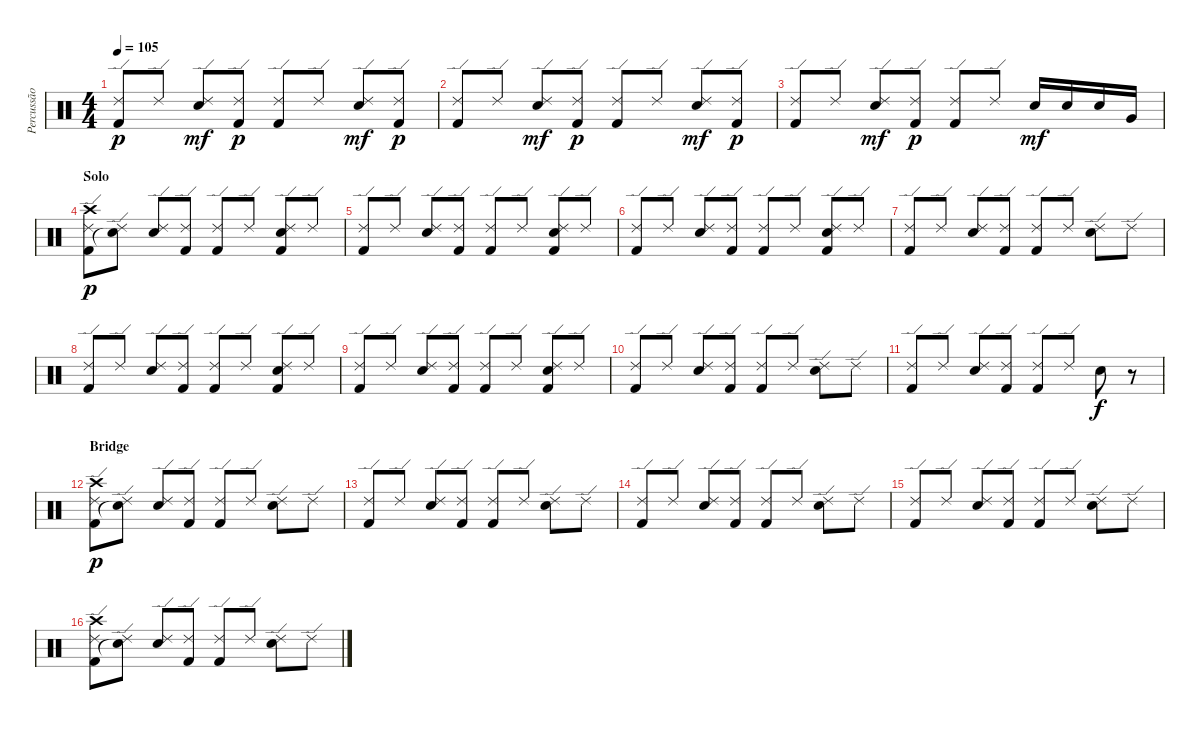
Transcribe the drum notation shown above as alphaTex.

\track ("Percussão" "Percussão") {instrument percussion}
\staff {score}
\articulation defaults
\ts (4 4)
\tempo 105
\clef neutral
\ks c
("Kick (hit) 2" "Ride (edge) 2").8{dy p} "Ride (edge) 2".8 ("Ride (edge) 2" "Electric Snare (hit)").8{dy mf} ("Kick (hit) 2" "Ride (edge) 2").8{dy p} ("Kick (hit) 2" "Ride (edge) 2").8 "Ride (edge) 2".8 ("Ride (edge) 2" "Electric Snare (hit)").8{dy mf} ("Kick (hit) 2" "Ride (edge) 2").8{dy p} |
("Kick (hit) 2" "Ride (edge) 2").8 "Ride (edge) 2".8 ("Ride (edge) 2" "Electric Snare (hit)").8{dy mf} ("Kick (hit) 2" "Ride (edge) 2").8{dy p} ("Kick (hit) 2" "Ride (edge) 2").8 "Ride (edge) 2".8 ("Ride (edge) 2" "Electric Snare (hit)").8{dy mf} ("Kick (hit) 2" "Ride (edge) 2").8{dy p} |
("Kick (hit) 2" "Ride (edge) 2").8 "Ride (edge) 2".8 ("Ride (edge) 2" "Electric Snare (hit)").8{dy mf} ("Kick (hit) 2" "Ride (edge) 2").8{dy p} ("Kick (hit) 2" "Ride (edge) 2").8 "Ride (edge) 2".8 "Snare (hit) 2".16{dy mf} "Snare (hit) 2".16 "Electric Snare (hit)".16 "Very Low Tom (hit)".16 |
\section ("" "Solo")
("Kick (hit) 2" "Crash high (hit)" "Ride (edge) 2").8{dy p} ("Snare (hit)"{t} "Ride (edge) 2").8 ("Ride (edge) 2" "Electric Snare (hit)").8 ("Kick (hit) 2" "Ride (edge) 2").8 ("Kick (hit) 2" "Ride (edge) 2").8 "Ride (edge) 2".8 ("Kick (hit) 2" "Ride (edge) 2" "Electric Snare (hit)").8 "Ride (edge) 2".8 |
("Kick (hit) 2" "Ride (edge) 2").8 "Ride (edge) 2".8 ("Ride (edge) 2" "Electric Snare (hit)").8 ("Kick (hit) 2" "Ride (edge) 2").8 ("Kick (hit) 2" "Ride (edge) 2").8 "Ride (edge) 2".8 ("Kick (hit) 2" "Ride (edge) 2" "Electric Snare (hit)").8 "Ride (edge) 2".8 |
("Kick (hit) 2" "Ride (edge) 2").8 "Ride (edge) 2".8 ("Ride (edge) 2" "Electric Snare (hit)").8 ("Kick (hit) 2" "Ride (edge) 2").8 ("Kick (hit) 2" "Ride (edge) 2").8 "Ride (edge) 2".8 ("Kick (hit) 2" "Ride (edge) 2" "Electric Snare (hit)").8 "Ride (edge) 2".8 |
("Kick (hit) 2" "Ride (edge) 2").8 "Ride (edge) 2".8 ("Ride (edge) 2" "Electric Snare (hit)").8 ("Kick (hit) 2" "Ride (edge) 2").8 ("Kick (hit) 2" "Ride (edge) 2").8 "Ride (edge) 2".8 ("Ride (edge) 2" "Electric Snare (hit)").8 "Ride (edge) 2".8 |
("Kick (hit) 2" "Ride (edge) 2").8 "Ride (edge) 2".8 ("Ride (edge) 2" "Electric Snare (hit)").8 ("Kick (hit) 2" "Ride (edge) 2").8 ("Kick (hit) 2" "Ride (edge) 2").8 "Ride (edge) 2".8 ("Kick (hit) 2" "Ride (edge) 2" "Electric Snare (hit)").8 "Ride (edge) 2".8 |
("Kick (hit) 2" "Ride (edge) 2").8 "Ride (edge) 2".8 ("Ride (edge) 2" "Electric Snare (hit)").8 ("Kick (hit) 2" "Ride (edge) 2").8 ("Kick (hit) 2" "Ride (edge) 2").8 "Ride (edge) 2".8 ("Kick (hit) 2" "Ride (edge) 2" "Electric Snare (hit)").8 "Ride (edge) 2".8 |
("Kick (hit) 2" "Ride (edge) 2").8 "Ride (edge) 2".8 ("Ride (edge) 2" "Electric Snare (hit)").8 ("Kick (hit) 2" "Ride (edge) 2").8 ("Kick (hit) 2" "Ride (edge) 2").8 "Ride (edge) 2".8 ("Ride (edge) 2" "Electric Snare (hit)").8 "Ride (edge) 2".8 |
("Kick (hit) 2" "Ride (edge) 2").8 "Ride (edge) 2".8 ("Ride (edge) 2" "Electric Snare (hit)").8 ("Kick (hit) 2" "Ride (edge) 2").8 ("Kick (hit) 2" "Ride (edge) 2").8 "Ride (edge) 2".8 "Electric Snare (hit)".8{dy f} r.8 |
\section ("" "Bridge")
("Kick (hit) 2" "Crash high (hit)" "Ride (edge) 2").8{dy p} ("Snare (hit)"{t} "Ride (edge) 2").8 ("Ride (edge) 2" "Electric Snare (hit)").8 ("Kick (hit) 2" "Ride (edge) 2").8 ("Kick (hit) 2" "Ride (edge) 2").8 "Ride (edge) 2".8 ("Ride (edge) 2" "Electric Snare (hit)").8 "Ride (edge) 2".8 |
("Kick (hit) 2" "Ride (edge) 2").8 "Ride (edge) 2".8 ("Ride (edge) 2" "Electric Snare (hit)").8 ("Kick (hit) 2" "Ride (edge) 2").8 ("Kick (hit) 2" "Ride (edge) 2").8 "Ride (edge) 2".8 ("Ride (edge) 2" "Electric Snare (hit)").8 "Ride (edge) 2".8 |
("Kick (hit) 2" "Ride (edge) 2").8 "Ride (edge) 2".8 ("Ride (edge) 2" "Electric Snare (hit)").8 ("Kick (hit) 2" "Ride (edge) 2").8 ("Kick (hit) 2" "Ride (edge) 2").8 "Ride (edge) 2".8 ("Ride (edge) 2" "Electric Snare (hit)").8 "Ride (edge) 2".8 |
("Kick (hit) 2" "Ride (edge) 2").8 "Ride (edge) 2".8 ("Ride (edge) 2" "Electric Snare (hit)").8 ("Kick (hit) 2" "Ride (edge) 2").8 ("Kick (hit) 2" "Ride (edge) 2").8 "Ride (edge) 2".8 ("Ride (edge) 2" "Electric Snare (hit)").8 "Ride (edge) 2".8 |
("Kick (hit) 2" "Crash high (hit)" "Ride (edge) 2").8 ("Snare (hit)"{t} "Ride (edge) 2").8 ("Ride (edge) 2" "Electric Snare (hit)").8 ("Kick (hit) 2" "Ride (edge) 2").8 ("Kick (hit) 2" "Ride (edge) 2").8 "Ride (edge) 2".8 ("Ride (edge) 2" "Electric Snare (hit)").8 "Ride (edge) 2".8
